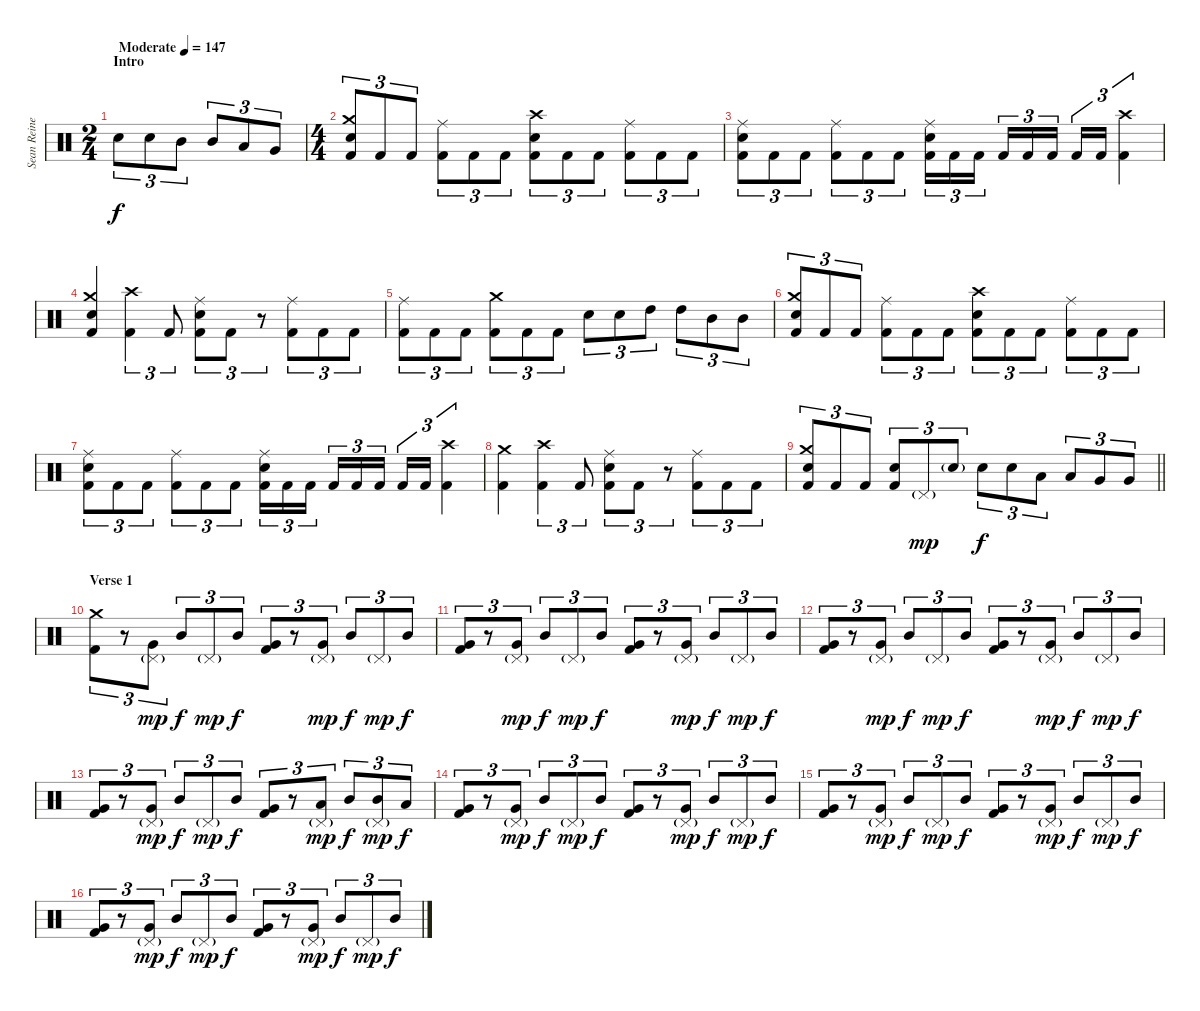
\track ("Sean Reinert" "Sean Reine") {instrument percussion}
\staff {score}
\articulation defaults
\ts (2 4)
\section ("" "Intro")
\tempo (147 "Moderate")
\clef neutral
\ks c "Snare (hit) 2".8{tu (3 2) dy f} "Snare (hit) 2".8{tu (3 2)} "Mid Tom (hit)".8{tu (3 2)} "Mid Tom (hit)".8{tu (3 2)} "Low Tom (hit)".8{tu (3 2)} "Very Low Tom (hit)".8{tu (3 2)}
|
\ts (4 4)
("Crash medium (hit)" "Snare (hit) 2" "Kick (hit) 2").8{tu (3 2)} "Kick (hit) 2".8{tu (3 2)} "Kick (hit) 2".8{tu (3 2)} ("Ride (middle)" "Kick (hit) 2").8{tu (3 2)} "Kick (hit) 2".8{tu (3 2)} "Kick (hit) 2".8{tu (3 2)} ("Crash high (hit)" "Snare (hit) 2" "Kick (hit) 2").8{tu (3 2)} "Kick (hit) 2".8{tu (3 2)} "Kick (hit) 2".8{tu (3 2)} ("Ride (middle)" "Kick (hit) 2").8{tu (3 2)} "Kick (hit) 2".8{tu (3 2)} "Kick (hit) 2".8{tu (3 2)} |
("Ride (middle)" "Snare (hit) 2" "Kick (hit) 2").8{tu (3 2)} "Kick (hit) 2".8{tu (3 2)} "Kick (hit) 2".8{tu (3 2)} ("Ride (middle)" "Kick (hit) 2").8{tu (3 2)} "Kick (hit) 2".8{tu (3 2)} "Kick (hit) 2".8{tu (3 2)} ("Ride (middle)" "Snare (hit) 2" "Kick (hit) 2").16{tu (3 2)} "Kick (hit) 2".16{tu (3 2)} "Kick (hit) 2".16{tu (3 2) beam splitsecondary} "Kick (hit) 2".16{tu (3 2)} "Kick (hit) 2".16{tu (3 2)} "Kick (hit) 2".16{tu (3 2)} "Kick (hit) 2".16{tu (3 2)} "Kick (hit) 2".16{tu (3 2)} ("Crash high (hit)" "Kick (hit) 2").4{tu (3 2)} |
("Crash medium (hit)" "Snare (hit) 2" "Kick (hit) 2").4 ("Crash high (hit)" "Kick (hit) 2").4{tu (3 2)} "Kick (hit) 2".8{tu (3 2)} ("Ride (middle)" "Snare (hit) 2" "Kick (hit) 2").8{tu (3 2)} "Kick (hit) 2".8{tu (3 2)} r.8{tu (3 2)} ("Ride (middle)" "Kick (hit) 2").8{tu (3 2)} "Kick (hit) 2".8{tu (3 2)} "Kick (hit) 2".8{tu (3 2)} |
("Ride (middle)" "Kick (hit) 2").8{tu (3 2)} "Kick (hit) 2".8{tu (3 2)} "Kick (hit) 2".8{tu (3 2)} ("Crash medium (hit)" "Kick (hit) 2").8{tu (3 2)} "Kick (hit) 2".8{tu (3 2)} "Kick (hit) 2".8{tu (3 2)} "Snare (hit) 2".8{tu (3 2)} "Snare (hit) 2".8{tu (3 2)} "High Tom (hit)".8{tu (3 2)} "High Tom (hit)".8{tu (3 2)} "Mid Tom (hit)".8{tu (3 2)} "Mid Tom (hit)".8{tu (3 2)} |
("Crash medium (hit)" "Snare (hit) 2" "Kick (hit) 2").8{tu (3 2)} "Kick (hit) 2".8{tu (3 2)} "Kick (hit) 2".8{tu (3 2)} ("Ride (middle)" "Kick (hit) 2").8{tu (3 2)} "Kick (hit) 2".8{tu (3 2)} "Kick (hit) 2".8{tu (3 2)} ("Crash high (hit)" "Snare (hit) 2" "Kick (hit) 2").8{tu (3 2)} "Kick (hit) 2".8{tu (3 2)} "Kick (hit) 2".8{tu (3 2)} ("Ride (middle)" "Kick (hit) 2").8{tu (3 2)} "Kick (hit) 2".8{tu (3 2)} "Kick (hit) 2".8{tu (3 2)} |
("Ride (middle)" "Snare (hit) 2" "Kick (hit) 2").8{tu (3 2)} "Kick (hit) 2".8{tu (3 2)} "Kick (hit) 2".8{tu (3 2)} ("Ride (middle)" "Kick (hit) 2").8{tu (3 2)} "Kick (hit) 2".8{tu (3 2)} "Kick (hit) 2".8{tu (3 2)} ("Ride (middle)" "Snare (hit) 2" "Kick (hit) 2").16{tu (3 2)} "Kick (hit) 2".16{tu (3 2)} "Kick (hit) 2".16{tu (3 2) beam splitsecondary} "Kick (hit) 2".16{tu (3 2)} "Kick (hit) 2".16{tu (3 2)} "Kick (hit) 2".16{tu (3 2)} "Kick (hit) 2".16{tu (3 2)} "Kick (hit) 2".16{tu (3 2)} ("Crash high (hit)" "Kick (hit) 2").4{tu (3 2)} |
("Crash medium (hit)" "Kick (hit) 2").4 ("Crash high (hit)" "Kick (hit) 2").4{tu (3 2)} "Kick (hit) 2".8{tu (3 2)} ("Ride (middle)" "Snare (hit) 2" "Kick (hit) 2").8{tu (3 2)} "Kick (hit) 2".8{tu (3 2)} r.8{tu (3 2)} ("Ride (middle)" "Kick (hit) 2").8{tu (3 2)} "Kick (hit) 2".8{tu (3 2)} "Kick (hit) 2".8{tu (3 2)} |
\barLineRight lightlight
("Crash medium (hit)" "Snare (hit) 2" "Kick (hit) 2").8{tu (3 2)} "Kick (hit) 2".8{tu (3 2)} "Kick (hit) 2".8{tu (3 2)} ("Snare (hit) 2" "Kick (hit) 2").8{tu (3 2)} "Pedal Hi-Hat (hit)"{g}.8{tu (3 2) dy mp} "Snare (hit) 2"{g}.8{tu (3 2)} "Snare (hit) 2".8{tu (3 2) dy f} "Snare (hit) 2".8{tu (3 2)} "Low Tom (hit)".8{tu (3 2)} "Low Tom (hit)".8{tu (3 2)} "Very Low Tom (hit)".8{tu (3 2)} "Very Low Tom (hit)".8{tu (3 2)} |
\section ("" "Verse 1")
("Crash medium (hit)" "Kick (hit) 2").8{tu (3 2)} r.8{tu (3 2)} ("Pedal Hi-Hat (hit)"{g} "Very Low Tom (hit)").8{tu (3 2) dy mp} "Mid Tom (hit)".8{tu (3 2) dy f} "Pedal Hi-Hat (hit)"{g}.8{tu (3 2) dy mp} "Mid Tom (hit)".8{tu (3 2) dy f} ("Very Low Tom (hit)" "Kick (hit) 2").8{tu (3 2)} r.8{tu (3 2)} ("Pedal Hi-Hat (hit)"{g} "Very Low Tom (hit)").8{tu (3 2) dy mp} "Mid Tom (hit)".8{tu (3 2) dy f} "Pedal Hi-Hat (hit)"{g}.8{tu (3 2) dy mp} "Mid Tom (hit)".8{tu (3 2) dy f} |
("Very Low Tom (hit)" "Kick (hit) 2").8{tu (3 2)} r.8{tu (3 2)} ("Pedal Hi-Hat (hit)"{g} "Very Low Tom (hit)").8{tu (3 2) dy mp} "Mid Tom (hit)".8{tu (3 2) dy f} "Pedal Hi-Hat (hit)"{g}.8{tu (3 2) dy mp} "Mid Tom (hit)".8{tu (3 2) dy f} ("Very Low Tom (hit)" "Kick (hit) 2").8{tu (3 2)} r.8{tu (3 2)} ("Pedal Hi-Hat (hit)"{g} "Very Low Tom (hit)").8{tu (3 2) dy mp} "Mid Tom (hit)".8{tu (3 2) dy f} "Pedal Hi-Hat (hit)"{g}.8{tu (3 2) dy mp} "Mid Tom (hit)".8{tu (3 2) dy f} |
("Very Low Tom (hit)" "Kick (hit) 2").8{tu (3 2)} r.8{tu (3 2)} ("Pedal Hi-Hat (hit)"{g} "Very Low Tom (hit)").8{tu (3 2) dy mp} "Mid Tom (hit)".8{tu (3 2) dy f} "Pedal Hi-Hat (hit)"{g}.8{tu (3 2) dy mp} "Mid Tom (hit)".8{tu (3 2) dy f} ("Very Low Tom (hit)" "Kick (hit) 2").8{tu (3 2)} r.8{tu (3 2)} ("Pedal Hi-Hat (hit)"{g} "Very Low Tom (hit)").8{tu (3 2) dy mp} "Mid Tom (hit)".8{tu (3 2) dy f} "Pedal Hi-Hat (hit)"{g}.8{tu (3 2) dy mp} "Mid Tom (hit)".8{tu (3 2) dy f} |
("Very Low Tom (hit)" "Kick (hit) 2").8{tu (3 2)} r.8{tu (3 2)} ("Pedal Hi-Hat (hit)"{g} "Very Low Tom (hit)").8{tu (3 2) dy mp} "Mid Tom (hit)".8{tu (3 2) dy f} "Pedal Hi-Hat (hit)"{g}.8{tu (3 2) dy mp} "Mid Tom (hit)".8{tu (3 2) dy f} ("Very Low Tom (hit)" "Kick (hit) 2").8{tu (3 2)} r.8{tu (3 2)} ("Pedal Hi-Hat (hit)"{g} "Low Tom (hit)").8{tu (3 2) dy mp} "Mid Tom (hit)".8{tu (3 2) dy f} ("Pedal Hi-Hat (hit)"{g} "Mid Tom (hit)").8{tu (3 2) dy mp} "Low Tom (hit)".8{tu (3 2) dy f} |
("Very Low Tom (hit)" "Kick (hit) 2").8{tu (3 2)} r.8{tu (3 2)} ("Pedal Hi-Hat (hit)"{g} "Very Low Tom (hit)").8{tu (3 2) dy mp} "Mid Tom (hit)".8{tu (3 2) dy f} "Pedal Hi-Hat (hit)"{g}.8{tu (3 2) dy mp} "Mid Tom (hit)".8{tu (3 2) dy f} ("Very Low Tom (hit)" "Kick (hit) 2").8{tu (3 2)} r.8{tu (3 2)} ("Pedal Hi-Hat (hit)"{g} "Very Low Tom (hit)").8{tu (3 2) dy mp} "Mid Tom (hit)".8{tu (3 2) dy f} "Pedal Hi-Hat (hit)"{g}.8{tu (3 2) dy mp} "Mid Tom (hit)".8{tu (3 2) dy f} |
("Very Low Tom (hit)" "Kick (hit) 2").8{tu (3 2)} r.8{tu (3 2)} ("Pedal Hi-Hat (hit)"{g} "Very Low Tom (hit)").8{tu (3 2) dy mp} "Mid Tom (hit)".8{tu (3 2) dy f} "Pedal Hi-Hat (hit)"{g}.8{tu (3 2) dy mp} "Mid Tom (hit)".8{tu (3 2) dy f} ("Very Low Tom (hit)" "Kick (hit) 2").8{tu (3 2)} r.8{tu (3 2)} ("Pedal Hi-Hat (hit)"{g} "Very Low Tom (hit)").8{tu (3 2) dy mp} "Mid Tom (hit)".8{tu (3 2) dy f} "Pedal Hi-Hat (hit)"{g}.8{tu (3 2) dy mp} "Mid Tom (hit)".8{tu (3 2) dy f} |
("Very Low Tom (hit)" "Kick (hit) 2").8{tu (3 2)} r.8{tu (3 2)} ("Pedal Hi-Hat (hit)"{g} "Very Low Tom (hit)").8{tu (3 2) dy mp} "Mid Tom (hit)".8{tu (3 2) dy f} "Pedal Hi-Hat (hit)"{g}.8{tu (3 2) dy mp} "Mid Tom (hit)".8{tu (3 2) dy f} ("Very Low Tom (hit)" "Kick (hit) 2").8{tu (3 2)} r.8{tu (3 2)} ("Pedal Hi-Hat (hit)"{g} "Very Low Tom (hit)").8{tu (3 2) dy mp} "Mid Tom (hit)".8{tu (3 2) dy f} "Pedal Hi-Hat (hit)"{g}.8{tu (3 2) dy mp} "Mid Tom (hit)".8{tu (3 2) dy f}
